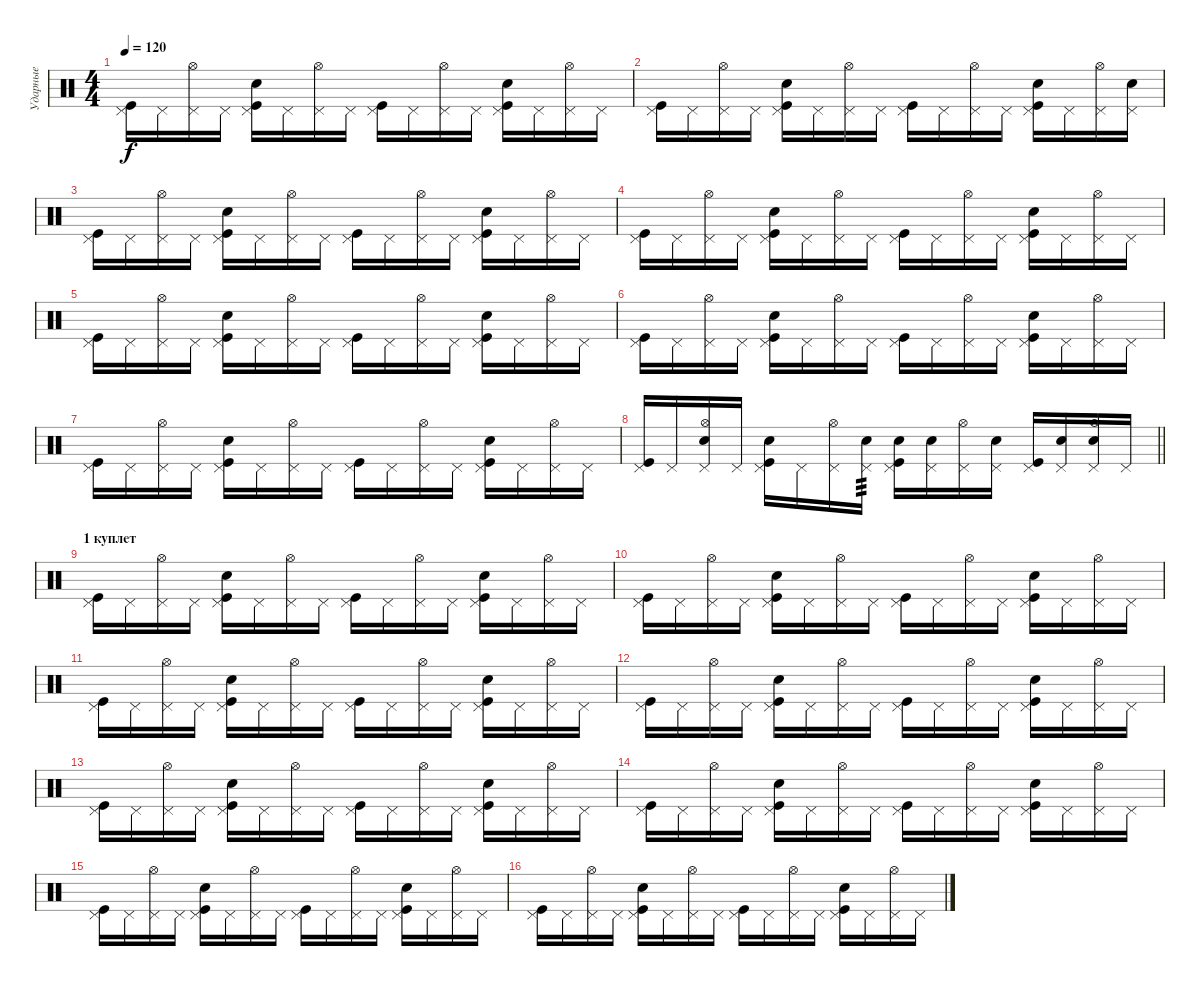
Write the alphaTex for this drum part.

\track ("Ударные" "Ударные") {instrument percussion}
\staff {score}
\articulation defaults
\ts (4 4)
\tempo 120
\clef neutral
\ks c
("Pedal Hi-Hat (hit)" "Kick (hit)").16{dy f} "Pedal Hi-Hat (hit)".16 ("Pedal Hi-Hat (hit)" "Hi-Hat (open)").16 "Pedal Hi-Hat (hit)".16 ("Pedal Hi-Hat (hit)" "Kick (hit)" "Snare (hit) 2").16 "Pedal Hi-Hat (hit)".16 ("Pedal Hi-Hat (hit)" "Hi-Hat (open)").16 "Pedal Hi-Hat (hit)".16 ("Pedal Hi-Hat (hit)" "Kick (hit)").16 "Pedal Hi-Hat (hit)".16 ("Pedal Hi-Hat (hit)" "Hi-Hat (open)").16 "Pedal Hi-Hat (hit)".16 ("Pedal Hi-Hat (hit)" "Kick (hit)" "Snare (hit) 2").16 "Pedal Hi-Hat (hit)".16 ("Pedal Hi-Hat (hit)" "Hi-Hat (open)").16 "Pedal Hi-Hat (hit)".16 |
("Pedal Hi-Hat (hit)" "Kick (hit)").16 "Pedal Hi-Hat (hit)".16 ("Pedal Hi-Hat (hit)" "Hi-Hat (open)").16 "Pedal Hi-Hat (hit)".16 ("Pedal Hi-Hat (hit)" "Kick (hit)" "Snare (hit) 2").16 "Pedal Hi-Hat (hit)".16 ("Pedal Hi-Hat (hit)" "Hi-Hat (open)").16 "Pedal Hi-Hat (hit)".16 ("Pedal Hi-Hat (hit)" "Kick (hit)").16 "Pedal Hi-Hat (hit)".16 ("Pedal Hi-Hat (hit)" "Hi-Hat (open)").16 "Pedal Hi-Hat (hit)".16 ("Pedal Hi-Hat (hit)" "Kick (hit)" "Snare (hit) 2").16 "Pedal Hi-Hat (hit)".16 ("Pedal Hi-Hat (hit)" "Hi-Hat (open)").16 ("Pedal Hi-Hat (hit)" "Snare (hit) 2").16 |
("Pedal Hi-Hat (hit)" "Kick (hit)").16 "Pedal Hi-Hat (hit)".16 ("Pedal Hi-Hat (hit)" "Hi-Hat (open)").16 "Pedal Hi-Hat (hit)".16 ("Pedal Hi-Hat (hit)" "Kick (hit)" "Snare (hit) 2").16 "Pedal Hi-Hat (hit)".16 ("Pedal Hi-Hat (hit)" "Hi-Hat (open)").16 "Pedal Hi-Hat (hit)".16 ("Pedal Hi-Hat (hit)" "Kick (hit)").16 "Pedal Hi-Hat (hit)".16 ("Pedal Hi-Hat (hit)" "Hi-Hat (open)").16 "Pedal Hi-Hat (hit)".16 ("Pedal Hi-Hat (hit)" "Kick (hit)" "Snare (hit) 2").16 "Pedal Hi-Hat (hit)".16 ("Pedal Hi-Hat (hit)" "Hi-Hat (open)").16 "Pedal Hi-Hat (hit)".16 |
("Pedal Hi-Hat (hit)" "Kick (hit)").16 "Pedal Hi-Hat (hit)".16 ("Pedal Hi-Hat (hit)" "Hi-Hat (open)").16 "Pedal Hi-Hat (hit)".16 ("Pedal Hi-Hat (hit)" "Kick (hit)" "Snare (hit) 2").16 "Pedal Hi-Hat (hit)".16 ("Pedal Hi-Hat (hit)" "Hi-Hat (open)").16 "Pedal Hi-Hat (hit)".16 ("Pedal Hi-Hat (hit)" "Kick (hit)").16 "Pedal Hi-Hat (hit)".16 ("Pedal Hi-Hat (hit)" "Hi-Hat (open)").16 "Pedal Hi-Hat (hit)".16 ("Pedal Hi-Hat (hit)" "Kick (hit)" "Snare (hit) 2").16 "Pedal Hi-Hat (hit)".16 ("Pedal Hi-Hat (hit)" "Hi-Hat (open)").16 "Pedal Hi-Hat (hit)".16 |
("Pedal Hi-Hat (hit)" "Kick (hit)").16 "Pedal Hi-Hat (hit)".16 ("Pedal Hi-Hat (hit)" "Hi-Hat (open)").16 "Pedal Hi-Hat (hit)".16 ("Pedal Hi-Hat (hit)" "Kick (hit)" "Snare (hit) 2").16 "Pedal Hi-Hat (hit)".16 ("Pedal Hi-Hat (hit)" "Hi-Hat (open)").16 "Pedal Hi-Hat (hit)".16 ("Pedal Hi-Hat (hit)" "Kick (hit)").16 "Pedal Hi-Hat (hit)".16 ("Pedal Hi-Hat (hit)" "Hi-Hat (open)").16 "Pedal Hi-Hat (hit)".16 ("Pedal Hi-Hat (hit)" "Kick (hit)" "Snare (hit) 2").16 "Pedal Hi-Hat (hit)".16 ("Pedal Hi-Hat (hit)" "Hi-Hat (open)").16 "Pedal Hi-Hat (hit)".16 |
("Pedal Hi-Hat (hit)" "Kick (hit)").16 "Pedal Hi-Hat (hit)".16 ("Pedal Hi-Hat (hit)" "Hi-Hat (open)").16 "Pedal Hi-Hat (hit)".16 ("Pedal Hi-Hat (hit)" "Kick (hit)" "Snare (hit) 2").16 "Pedal Hi-Hat (hit)".16 ("Pedal Hi-Hat (hit)" "Hi-Hat (open)").16 "Pedal Hi-Hat (hit)".16 ("Pedal Hi-Hat (hit)" "Kick (hit)").16 "Pedal Hi-Hat (hit)".16 ("Pedal Hi-Hat (hit)" "Hi-Hat (open)").16 "Pedal Hi-Hat (hit)".16 ("Pedal Hi-Hat (hit)" "Kick (hit)" "Snare (hit) 2").16 "Pedal Hi-Hat (hit)".16 ("Pedal Hi-Hat (hit)" "Hi-Hat (open)").16 "Pedal Hi-Hat (hit)".16 |
("Pedal Hi-Hat (hit)" "Kick (hit)").16 "Pedal Hi-Hat (hit)".16 ("Pedal Hi-Hat (hit)" "Hi-Hat (open)").16 "Pedal Hi-Hat (hit)".16 ("Pedal Hi-Hat (hit)" "Kick (hit)" "Snare (hit) 2").16 "Pedal Hi-Hat (hit)".16 ("Pedal Hi-Hat (hit)" "Hi-Hat (open)").16 "Pedal Hi-Hat (hit)".16 ("Pedal Hi-Hat (hit)" "Kick (hit)").16 "Pedal Hi-Hat (hit)".16 ("Pedal Hi-Hat (hit)" "Hi-Hat (open)").16 "Pedal Hi-Hat (hit)".16 ("Pedal Hi-Hat (hit)" "Kick (hit)" "Snare (hit) 2").16 "Pedal Hi-Hat (hit)".16 ("Pedal Hi-Hat (hit)" "Hi-Hat (open)").16 "Pedal Hi-Hat (hit)".16 |
\barLineRight lightlight
("Pedal Hi-Hat (hit)" "Kick (hit)").16 "Pedal Hi-Hat (hit)".16 ("Pedal Hi-Hat (hit)" "Hi-Hat (open)" "Snare (hit) 2").16 "Pedal Hi-Hat (hit)".16 ("Pedal Hi-Hat (hit)" "Kick (hit)" "Snare (hit) 2").16 "Pedal Hi-Hat (hit)".16 ("Pedal Hi-Hat (hit)" "Hi-Hat (open)").16 ("Pedal Hi-Hat (hit)" "Snare (hit) 2").16{tp 3} ("Pedal Hi-Hat (hit)" "Kick (hit)" "Snare (hit) 2").16 ("Pedal Hi-Hat (hit)" "Snare (hit) 2").16 ("Pedal Hi-Hat (hit)" "Hi-Hat (open)").16 ("Pedal Hi-Hat (hit)" "Snare (hit) 2").16 ("Pedal Hi-Hat (hit)" "Kick (hit)").16 ("Pedal Hi-Hat (hit)" "Snare (hit) 2").16 ("Pedal Hi-Hat (hit)" "Hi-Hat (open)" "Snare (hit) 2").16 "Pedal Hi-Hat (hit)".16 |
\section ("" "1 куплет")
("Pedal Hi-Hat (hit)" "Kick (hit)").16 "Pedal Hi-Hat (hit)".16 ("Pedal Hi-Hat (hit)" "Hi-Hat (open)").16 "Pedal Hi-Hat (hit)".16 ("Pedal Hi-Hat (hit)" "Kick (hit)" "Snare (hit) 2").16 "Pedal Hi-Hat (hit)".16 ("Pedal Hi-Hat (hit)" "Hi-Hat (open)").16 "Pedal Hi-Hat (hit)".16 ("Pedal Hi-Hat (hit)" "Kick (hit)").16 "Pedal Hi-Hat (hit)".16 ("Pedal Hi-Hat (hit)" "Hi-Hat (open)").16 "Pedal Hi-Hat (hit)".16 ("Pedal Hi-Hat (hit)" "Kick (hit)" "Snare (hit) 2").16 "Pedal Hi-Hat (hit)".16 ("Pedal Hi-Hat (hit)" "Hi-Hat (open)").16 "Pedal Hi-Hat (hit)".16 |
("Pedal Hi-Hat (hit)" "Kick (hit)").16 "Pedal Hi-Hat (hit)".16 ("Pedal Hi-Hat (hit)" "Hi-Hat (open)").16 "Pedal Hi-Hat (hit)".16 ("Pedal Hi-Hat (hit)" "Kick (hit)" "Snare (hit) 2").16 "Pedal Hi-Hat (hit)".16 ("Pedal Hi-Hat (hit)" "Hi-Hat (open)").16 "Pedal Hi-Hat (hit)".16 ("Pedal Hi-Hat (hit)" "Kick (hit)").16 "Pedal Hi-Hat (hit)".16 ("Pedal Hi-Hat (hit)" "Hi-Hat (open)").16 "Pedal Hi-Hat (hit)".16 ("Pedal Hi-Hat (hit)" "Kick (hit)" "Snare (hit) 2").16 "Pedal Hi-Hat (hit)".16 ("Pedal Hi-Hat (hit)" "Hi-Hat (open)").16 "Pedal Hi-Hat (hit)".16 |
("Pedal Hi-Hat (hit)" "Kick (hit)").16 "Pedal Hi-Hat (hit)".16 ("Pedal Hi-Hat (hit)" "Hi-Hat (open)").16 "Pedal Hi-Hat (hit)".16 ("Pedal Hi-Hat (hit)" "Kick (hit)" "Snare (hit) 2").16 "Pedal Hi-Hat (hit)".16 ("Pedal Hi-Hat (hit)" "Hi-Hat (open)").16 "Pedal Hi-Hat (hit)".16 ("Pedal Hi-Hat (hit)" "Kick (hit)").16 "Pedal Hi-Hat (hit)".16 ("Pedal Hi-Hat (hit)" "Hi-Hat (open)").16 "Pedal Hi-Hat (hit)".16 ("Pedal Hi-Hat (hit)" "Kick (hit)" "Snare (hit) 2").16 "Pedal Hi-Hat (hit)".16 ("Pedal Hi-Hat (hit)" "Hi-Hat (open)").16 "Pedal Hi-Hat (hit)".16 |
("Pedal Hi-Hat (hit)" "Kick (hit)").16 "Pedal Hi-Hat (hit)".16 ("Pedal Hi-Hat (hit)" "Hi-Hat (open)").16 "Pedal Hi-Hat (hit)".16 ("Pedal Hi-Hat (hit)" "Kick (hit)" "Snare (hit) 2").16 "Pedal Hi-Hat (hit)".16 ("Pedal Hi-Hat (hit)" "Hi-Hat (open)").16 "Pedal Hi-Hat (hit)".16 ("Pedal Hi-Hat (hit)" "Kick (hit)").16 "Pedal Hi-Hat (hit)".16 ("Pedal Hi-Hat (hit)" "Hi-Hat (open)").16 "Pedal Hi-Hat (hit)".16 ("Pedal Hi-Hat (hit)" "Kick (hit)" "Snare (hit) 2").16 "Pedal Hi-Hat (hit)".16 ("Pedal Hi-Hat (hit)" "Hi-Hat (open)").16 "Pedal Hi-Hat (hit)".16 |
("Pedal Hi-Hat (hit)" "Kick (hit)").16 "Pedal Hi-Hat (hit)".16 ("Pedal Hi-Hat (hit)" "Hi-Hat (open)").16 "Pedal Hi-Hat (hit)".16 ("Pedal Hi-Hat (hit)" "Kick (hit)" "Snare (hit) 2").16 "Pedal Hi-Hat (hit)".16 ("Pedal Hi-Hat (hit)" "Hi-Hat (open)").16 "Pedal Hi-Hat (hit)".16 ("Pedal Hi-Hat (hit)" "Kick (hit)").16 "Pedal Hi-Hat (hit)".16 ("Pedal Hi-Hat (hit)" "Hi-Hat (open)").16 "Pedal Hi-Hat (hit)".16 ("Pedal Hi-Hat (hit)" "Kick (hit)" "Snare (hit) 2").16 "Pedal Hi-Hat (hit)".16 ("Pedal Hi-Hat (hit)" "Hi-Hat (open)").16 "Pedal Hi-Hat (hit)".16 |
("Pedal Hi-Hat (hit)" "Kick (hit)").16 "Pedal Hi-Hat (hit)".16 ("Pedal Hi-Hat (hit)" "Hi-Hat (open)").16 "Pedal Hi-Hat (hit)".16 ("Pedal Hi-Hat (hit)" "Kick (hit)" "Snare (hit) 2").16 "Pedal Hi-Hat (hit)".16 ("Pedal Hi-Hat (hit)" "Hi-Hat (open)").16 "Pedal Hi-Hat (hit)".16 ("Pedal Hi-Hat (hit)" "Kick (hit)").16 "Pedal Hi-Hat (hit)".16 ("Pedal Hi-Hat (hit)" "Hi-Hat (open)").16 "Pedal Hi-Hat (hit)".16 ("Pedal Hi-Hat (hit)" "Kick (hit)" "Snare (hit) 2").16 "Pedal Hi-Hat (hit)".16 ("Pedal Hi-Hat (hit)" "Hi-Hat (open)").16 "Pedal Hi-Hat (hit)".16 |
("Pedal Hi-Hat (hit)" "Kick (hit)").16 "Pedal Hi-Hat (hit)".16 ("Pedal Hi-Hat (hit)" "Hi-Hat (open)").16 "Pedal Hi-Hat (hit)".16 ("Pedal Hi-Hat (hit)" "Kick (hit)" "Snare (hit) 2").16 "Pedal Hi-Hat (hit)".16 ("Pedal Hi-Hat (hit)" "Hi-Hat (open)").16 "Pedal Hi-Hat (hit)".16 ("Pedal Hi-Hat (hit)" "Kick (hit)").16 "Pedal Hi-Hat (hit)".16 ("Pedal Hi-Hat (hit)" "Hi-Hat (open)").16 "Pedal Hi-Hat (hit)".16 ("Pedal Hi-Hat (hit)" "Kick (hit)" "Snare (hit) 2").16 "Pedal Hi-Hat (hit)".16 ("Pedal Hi-Hat (hit)" "Hi-Hat (open)").16 "Pedal Hi-Hat (hit)".16 |
("Pedal Hi-Hat (hit)" "Kick (hit)").16 "Pedal Hi-Hat (hit)".16 ("Pedal Hi-Hat (hit)" "Hi-Hat (open)").16 "Pedal Hi-Hat (hit)".16 ("Pedal Hi-Hat (hit)" "Kick (hit)" "Snare (hit) 2").16 "Pedal Hi-Hat (hit)".16 ("Pedal Hi-Hat (hit)" "Hi-Hat (open)").16 "Pedal Hi-Hat (hit)".16 ("Pedal Hi-Hat (hit)" "Kick (hit)").16 "Pedal Hi-Hat (hit)".16 ("Pedal Hi-Hat (hit)" "Hi-Hat (open)").16 "Pedal Hi-Hat (hit)".16 ("Pedal Hi-Hat (hit)" "Kick (hit)" "Snare (hit) 2").16 "Pedal Hi-Hat (hit)".16 ("Pedal Hi-Hat (hit)" "Hi-Hat (open)").16 "Pedal Hi-Hat (hit)".16
